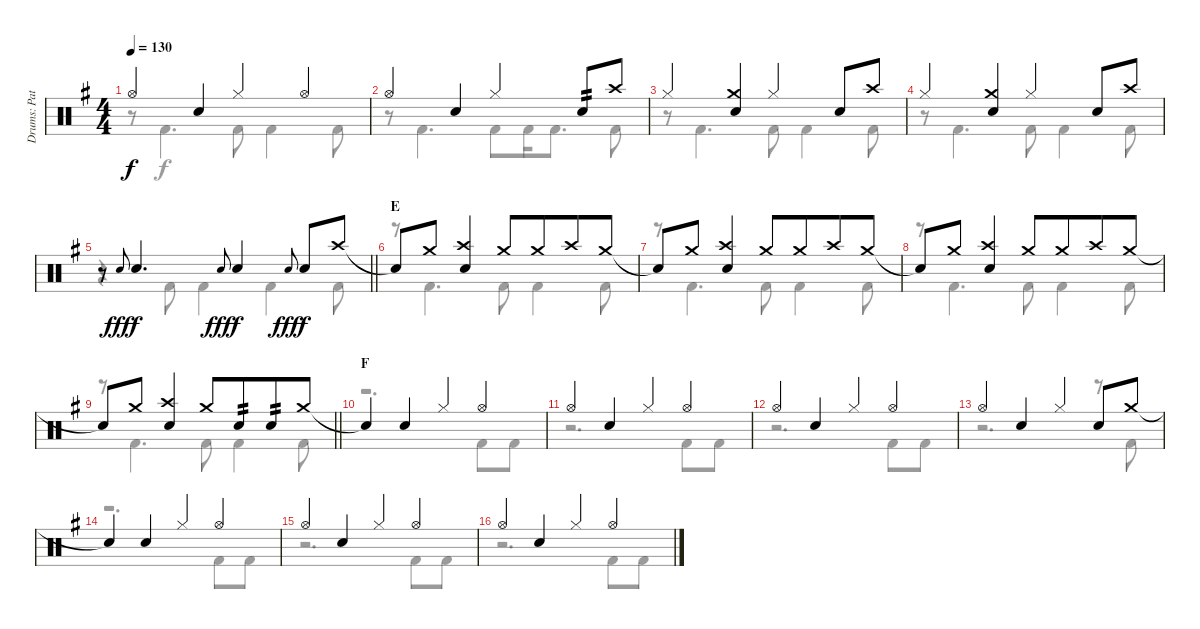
\track ("Drums: Pat" "Drums: Pat") {instrument percussion}
\staff {score}
\articulation defaults
\voice
\ts (4 4)
\tempo 130
\clef neutral
\ks g "Hi-Hat (open)".4{dy f} "Snare (hit) 2".4 "Hi-Hat (closed)".4 "Hi-Hat (open)".4
|
"Hi-Hat (open)".4 "Snare (hit) 2".4 "Hi-Hat (closed)".4 "Snare (hit) 2".8{tp 2} "Crash high (hit)".8 |
"Hi-Hat (closed)".4 ("Crash medium (hit)" "Snare (hit) 2").4 "Hi-Hat (closed)".4 "Snare (hit) 2".8 "Crash high (hit)".8 |
"Hi-Hat (closed)".4 ("Crash medium (hit)" "Snare (hit) 2").4 "Hi-Hat (closed)".4 "Snare (hit) 2".8 "Crash high (hit)".8 |
\barLineRight lightlight
r.8 "Electric Snare (hit)".8{gr onbeat dy fff} "Snare (hit) 2".4{d dy f} "Electric Snare (hit)".8{gr onbeat dy fff} "Snare (hit) 2".4{dy f} "Electric Snare (hit)".8{gr onbeat dy fff} "Snare (hit) 2".8{dy f} "Crash high (hit)".8 |
\section ("" "E")
"Snare (hit)"{t}.8 "Crash medium (hit)".8 ("Crash high (hit)" "Snare (hit) 2").4 "Crash medium (hit)".8 "Crash medium (hit)".8{beam merge} "Crash high (hit)".8 "Crash medium (hit)".8 |
"Snare (hit)"{t}.8 "Crash medium (hit)".8 ("Crash high (hit)" "Snare (hit) 2").4 "Crash medium (hit)".8 "Crash medium (hit)".8{beam merge} "Crash high (hit)".8 "Crash medium (hit)".8 |
"Snare (hit)"{t}.8 "Crash medium (hit)".8 ("Crash high (hit)" "Snare (hit) 2").4 "Crash medium (hit)".8 "Crash medium (hit)".8{beam merge} "Crash high (hit)".8 "Crash medium (hit)".8 |
\barLineRight lightlight "Snare (hit)"{t}.8 "Crash medium (hit)".8
("Crash high (hit)" "Snare (hit) 2").4 "Crash medium (hit)".8{beam merge} "Snare (hit) 2".8{tp 2 beam merge} "Snare (hit) 2".8{tp 2} "Crash medium (hit)".8 |
\section ("" "F")
"Snare (hit)"{t}.4 "Snare (hit) 2".4 "Hi-Hat (closed)".4 "Hi-Hat (open)".4 |
"Hi-Hat (open)".4 "Snare (hit) 2".4 "Hi-Hat (closed)".4 "Hi-Hat (open)".4 |
"Hi-Hat (open)".4 "Snare (hit) 2".4 "Hi-Hat (closed)".4 "Hi-Hat (open)".4 |
"Hi-Hat (open)".4 "Snare (hit) 2".4 "Hi-Hat (closed)".4 "Snare (hit) 2".8 "Crash medium (hit)".8 |
"Snare (hit)"{t}.4 "Snare (hit) 2".4 "Hi-Hat (closed)".4 "Hi-Hat (open)".4 |
"Hi-Hat (open)".4 "Snare (hit) 2".4 "Hi-Hat (closed)".4 "Hi-Hat (open)".4 |
"Hi-Hat (open)".4 "Snare (hit) 2".4 "Hi-Hat (closed)".4 "Hi-Hat (open)".4
\voice
\clef neutral
\ottava regular
\simile none
\ks g
r.8{dy f} "Kick (hit) 2".4{d} "Kick (hit) 2".8 "Kick (hit) 2".4 "Kick (hit) 2".8 |
r.8 "Kick (hit) 2".4{d} "Kick (hit) 2".8 "Kick (hit) 2".16 "Kick (hit) 2".8{d} "Kick (hit) 2".8 |
r.8 "Kick (hit) 2".4{d} "Kick (hit) 2".8 "Kick (hit) 2".4 "Kick (hit) 2".8 |
r.8 "Kick (hit) 2".4{d} "Kick (hit) 2".8 "Kick (hit) 2".4 "Kick (hit) 2".8 |
\barLineRight lightlight
r.4 "Kick (hit) 2".8 "Kick (hit) 2".4 "Kick (hit) 2".4 "Kick (hit) 2".8 |
r.8 "Kick (hit) 2".4{d} "Kick (hit) 2".8 "Kick (hit) 2".4 "Kick (hit) 2".8 |
r.8 "Kick (hit) 2".4{d} "Kick (hit) 2".8 "Kick (hit) 2".4 "Kick (hit) 2".8 |
r.8 "Kick (hit) 2".4{d} "Kick (hit) 2".8 "Kick (hit) 2".4 "Kick (hit) 2".8 |
\barLineRight lightlight
r.8 "Kick (hit) 2".4{d} "Kick (hit) 2".8 "Kick (hit) 2".4 "Kick (hit) 2".8 |
r.2{d} "Kick (hit) 2".8 "Kick (hit) 2".8 |
r.2{d} "Kick (hit) 2".8 "Kick (hit) 2".8 |
r.2{d} "Kick (hit) 2".8 "Kick (hit) 2".8 |
r.2{d} r.8 "Kick (hit) 2".8 |
r.2{d} "Kick (hit) 2".8 "Kick (hit) 2".8 |
r.2{d} "Kick (hit) 2".8 "Kick (hit) 2".8 |
r.2{d} "Kick (hit) 2".8 "Kick (hit) 2".8
